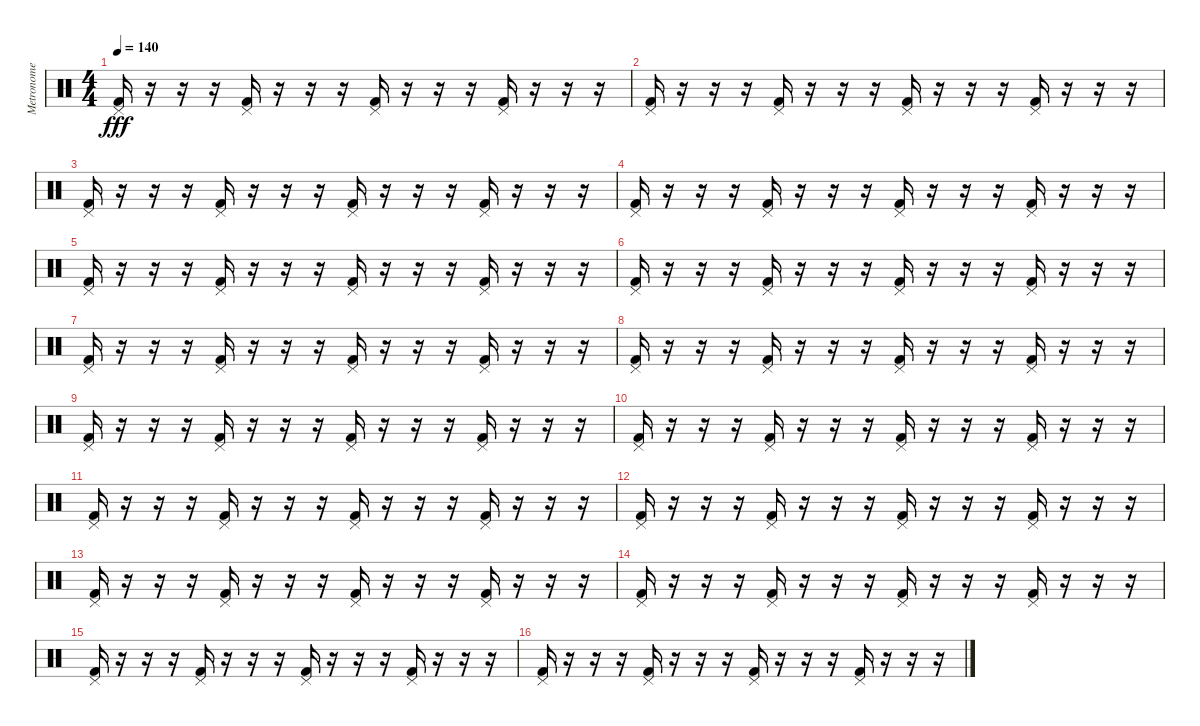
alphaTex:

\track ("Metronome" "Metronome") {mute instrument percussion}
\staff {score}
\articulation defaults
\ts (4 4)
\tempo 140
\clef neutral
\ks c
("Pedal Hi-Hat (hit)" "Kick (hit) 2").16{dy fff} r.16 r.16 r.16 ("Pedal Hi-Hat (hit)" "Kick (hit) 2").16 r.16 r.16 r.16 ("Pedal Hi-Hat (hit)" "Kick (hit) 2").16 r.16 r.16 r.16 ("Pedal Hi-Hat (hit)" "Kick (hit) 2").16 r.16 r.16 r.16 |
("Pedal Hi-Hat (hit)" "Kick (hit) 2").16 r.16 r.16 r.16 ("Pedal Hi-Hat (hit)" "Kick (hit) 2").16 r.16 r.16 r.16 ("Pedal Hi-Hat (hit)" "Kick (hit) 2").16 r.16 r.16 r.16 ("Pedal Hi-Hat (hit)" "Kick (hit) 2").16 r.16 r.16 r.16 |
("Pedal Hi-Hat (hit)" "Kick (hit) 2").16 r.16 r.16 r.16 ("Pedal Hi-Hat (hit)" "Kick (hit) 2").16 r.16 r.16 r.16 ("Pedal Hi-Hat (hit)" "Kick (hit) 2").16 r.16 r.16 r.16 ("Pedal Hi-Hat (hit)" "Kick (hit) 2").16 r.16 r.16 r.16 |
("Pedal Hi-Hat (hit)" "Kick (hit) 2").16 r.16 r.16 r.16 ("Pedal Hi-Hat (hit)" "Kick (hit) 2").16 r.16 r.16 r.16 ("Pedal Hi-Hat (hit)" "Kick (hit) 2").16 r.16 r.16 r.16 ("Pedal Hi-Hat (hit)" "Kick (hit) 2").16 r.16 r.16 r.16 |
("Pedal Hi-Hat (hit)" "Kick (hit) 2").16 r.16 r.16 r.16 ("Pedal Hi-Hat (hit)" "Kick (hit) 2").16 r.16 r.16 r.16 ("Pedal Hi-Hat (hit)" "Kick (hit) 2").16 r.16 r.16 r.16 ("Pedal Hi-Hat (hit)" "Kick (hit) 2").16 r.16 r.16 r.16 |
("Pedal Hi-Hat (hit)" "Kick (hit) 2").16 r.16 r.16 r.16 ("Pedal Hi-Hat (hit)" "Kick (hit) 2").16 r.16 r.16 r.16 ("Pedal Hi-Hat (hit)" "Kick (hit) 2").16 r.16 r.16 r.16 ("Pedal Hi-Hat (hit)" "Kick (hit) 2").16 r.16 r.16 r.16 |
("Pedal Hi-Hat (hit)" "Kick (hit) 2").16 r.16 r.16 r.16 ("Pedal Hi-Hat (hit)" "Kick (hit) 2").16 r.16 r.16 r.16 ("Pedal Hi-Hat (hit)" "Kick (hit) 2").16 r.16 r.16 r.16 ("Pedal Hi-Hat (hit)" "Kick (hit) 2").16 r.16 r.16 r.16 |
("Pedal Hi-Hat (hit)" "Kick (hit) 2").16 r.16 r.16 r.16 ("Pedal Hi-Hat (hit)" "Kick (hit) 2").16 r.16 r.16 r.16 ("Pedal Hi-Hat (hit)" "Kick (hit) 2").16 r.16 r.16 r.16 ("Pedal Hi-Hat (hit)" "Kick (hit) 2").16 r.16 r.16 r.16 |
("Pedal Hi-Hat (hit)" "Kick (hit) 2").16 r.16 r.16 r.16 ("Pedal Hi-Hat (hit)" "Kick (hit) 2").16 r.16 r.16 r.16 ("Pedal Hi-Hat (hit)" "Kick (hit) 2").16 r.16 r.16 r.16 ("Pedal Hi-Hat (hit)" "Kick (hit) 2").16 r.16 r.16 r.16 |
("Pedal Hi-Hat (hit)" "Kick (hit) 2").16 r.16 r.16 r.16 ("Pedal Hi-Hat (hit)" "Kick (hit) 2").16 r.16 r.16 r.16 ("Pedal Hi-Hat (hit)" "Kick (hit) 2").16 r.16 r.16 r.16 ("Pedal Hi-Hat (hit)" "Kick (hit) 2").16 r.16 r.16 r.16 |
("Pedal Hi-Hat (hit)" "Kick (hit) 2").16 r.16 r.16 r.16 ("Pedal Hi-Hat (hit)" "Kick (hit) 2").16 r.16 r.16 r.16 ("Pedal Hi-Hat (hit)" "Kick (hit) 2").16 r.16 r.16 r.16 ("Pedal Hi-Hat (hit)" "Kick (hit) 2").16 r.16 r.16 r.16 |
("Pedal Hi-Hat (hit)" "Kick (hit) 2").16 r.16 r.16 r.16 ("Pedal Hi-Hat (hit)" "Kick (hit) 2").16 r.16 r.16 r.16 ("Pedal Hi-Hat (hit)" "Kick (hit) 2").16 r.16 r.16 r.16 ("Pedal Hi-Hat (hit)" "Kick (hit) 2").16 r.16 r.16 r.16 |
("Pedal Hi-Hat (hit)" "Kick (hit) 2").16 r.16 r.16 r.16 ("Pedal Hi-Hat (hit)" "Kick (hit) 2").16 r.16 r.16 r.16 ("Pedal Hi-Hat (hit)" "Kick (hit) 2").16 r.16 r.16 r.16 ("Pedal Hi-Hat (hit)" "Kick (hit) 2").16 r.16 r.16 r.16 |
("Pedal Hi-Hat (hit)" "Kick (hit) 2").16 r.16 r.16 r.16 ("Pedal Hi-Hat (hit)" "Kick (hit) 2").16 r.16 r.16 r.16 ("Pedal Hi-Hat (hit)" "Kick (hit) 2").16 r.16 r.16 r.16 ("Pedal Hi-Hat (hit)" "Kick (hit) 2").16 r.16 r.16 r.16 |
("Pedal Hi-Hat (hit)" "Kick (hit) 2").16 r.16 r.16 r.16 ("Pedal Hi-Hat (hit)" "Kick (hit) 2").16 r.16 r.16 r.16 ("Pedal Hi-Hat (hit)" "Kick (hit) 2").16 r.16 r.16 r.16 ("Pedal Hi-Hat (hit)" "Kick (hit) 2").16 r.16 r.16 r.16 |
("Pedal Hi-Hat (hit)" "Kick (hit) 2").16 r.16 r.16 r.16 ("Pedal Hi-Hat (hit)" "Kick (hit) 2").16 r.16 r.16 r.16 ("Pedal Hi-Hat (hit)" "Kick (hit) 2").16 r.16 r.16 r.16 ("Pedal Hi-Hat (hit)" "Kick (hit) 2").16 r.16 r.16 r.16
